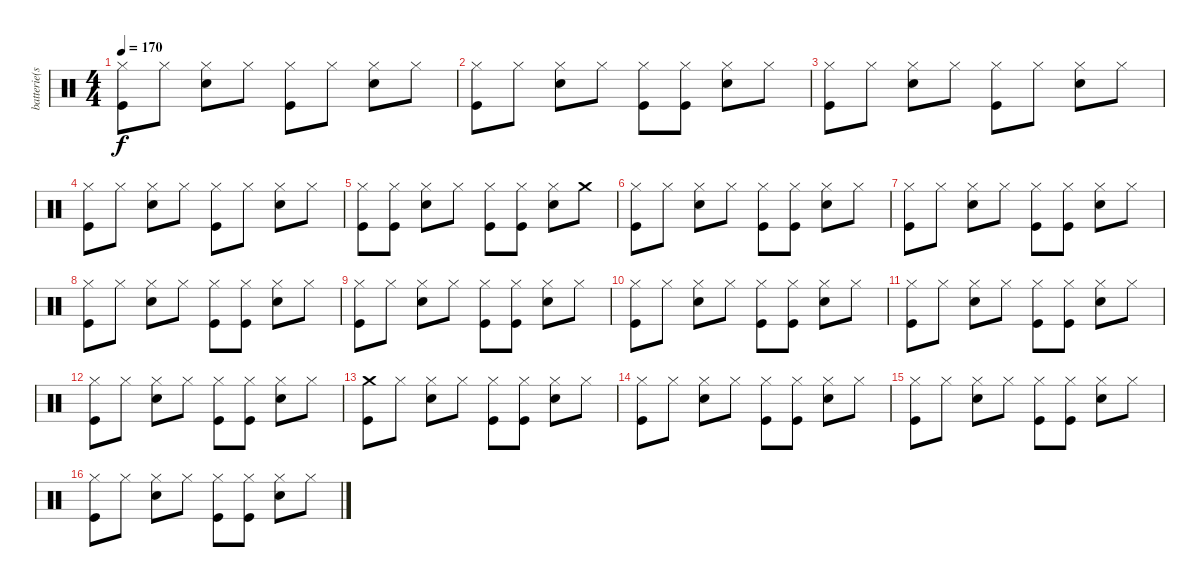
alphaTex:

\track ("batterie(steve)" "batterie(s") {instrument percussion}
\staff {score}
\articulation defaults
\ts (4 4)
\tempo 170
\clef neutral
\ks c
("Hi-Hat (closed)" "Kick (hit)").8{dy f} "Hi-Hat (closed)".8 ("Hi-Hat (closed)" "Snare (hit) 2").8 "Hi-Hat (closed)".8 ("Hi-Hat (closed)" "Kick (hit)").8 "Hi-Hat (closed)".8 ("Hi-Hat (closed)" "Snare (hit) 2").8 "Hi-Hat (closed)".8 |
("Hi-Hat (closed)" "Kick (hit)").8 "Hi-Hat (closed)".8 ("Hi-Hat (closed)" "Snare (hit) 2").8 "Hi-Hat (closed)".8 ("Hi-Hat (closed)" "Kick (hit)").8 ("Hi-Hat (closed)" "Kick (hit)").8 ("Hi-Hat (closed)" "Snare (hit) 2").8 "Hi-Hat (closed)".8 |
("Hi-Hat (closed)" "Kick (hit)").8 "Hi-Hat (closed)".8 ("Hi-Hat (closed)" "Snare (hit) 2").8 "Hi-Hat (closed)".8 ("Hi-Hat (closed)" "Kick (hit)").8 "Hi-Hat (closed)".8 ("Hi-Hat (closed)" "Snare (hit) 2").8 "Hi-Hat (closed)".8 |
("Hi-Hat (closed)" "Kick (hit)").8 "Hi-Hat (closed)".8 ("Hi-Hat (closed)" "Snare (hit) 2").8 "Hi-Hat (closed)".8 ("Hi-Hat (closed)" "Kick (hit)").8 "Hi-Hat (closed)".8 ("Hi-Hat (closed)" "Snare (hit) 2").8 "Hi-Hat (closed)".8 |
("Hi-Hat (closed)" "Kick (hit)").8 ("Hi-Hat (closed)" "Kick (hit)").8 ("Hi-Hat (closed)" "Snare (hit) 2").8 "Hi-Hat (closed)".8 ("Hi-Hat (closed)" "Kick (hit)").8 ("Hi-Hat (closed)" "Kick (hit)").8 ("Hi-Hat (closed)" "Snare (hit) 2").8 "Crash medium (hit)".8 |
("Hi-Hat (closed)" "Kick (hit)").8 "Hi-Hat (closed)".8 ("Hi-Hat (closed)" "Snare (hit) 2").8 "Hi-Hat (closed)".8 ("Hi-Hat (closed)" "Kick (hit)").8 ("Hi-Hat (closed)" "Kick (hit)").8 ("Hi-Hat (closed)" "Snare (hit) 2").8 "Hi-Hat (closed)".8 |
("Hi-Hat (closed)" "Kick (hit)").8 "Hi-Hat (closed)".8 ("Hi-Hat (closed)" "Snare (hit) 2").8 "Hi-Hat (closed)".8 ("Hi-Hat (closed)" "Kick (hit)").8 ("Hi-Hat (closed)" "Kick (hit)").8 ("Hi-Hat (closed)" "Snare (hit) 2").8 "Hi-Hat (closed)".8 |
("Hi-Hat (closed)" "Kick (hit)").8 "Hi-Hat (closed)".8 ("Hi-Hat (closed)" "Snare (hit) 2").8 "Hi-Hat (closed)".8 ("Hi-Hat (closed)" "Kick (hit)").8 ("Hi-Hat (closed)" "Kick (hit)").8 ("Hi-Hat (closed)" "Snare (hit) 2").8 "Hi-Hat (closed)".8 |
("Hi-Hat (closed)" "Kick (hit)").8 "Hi-Hat (closed)".8 ("Hi-Hat (closed)" "Snare (hit) 2").8 "Hi-Hat (closed)".8 ("Hi-Hat (closed)" "Kick (hit)").8 ("Hi-Hat (closed)" "Kick (hit)").8 ("Hi-Hat (closed)" "Snare (hit) 2").8 "Hi-Hat (closed)".8 |
("Hi-Hat (closed)" "Kick (hit)").8 "Hi-Hat (closed)".8 ("Hi-Hat (closed)" "Snare (hit) 2").8 "Hi-Hat (closed)".8 ("Hi-Hat (closed)" "Kick (hit)").8 ("Hi-Hat (closed)" "Kick (hit)").8 ("Hi-Hat (closed)" "Snare (hit) 2").8 "Hi-Hat (closed)".8 |
("Hi-Hat (closed)" "Kick (hit)").8 "Hi-Hat (closed)".8 ("Hi-Hat (closed)" "Snare (hit) 2").8 "Hi-Hat (closed)".8 ("Hi-Hat (closed)" "Kick (hit)").8 ("Hi-Hat (closed)" "Kick (hit)").8 ("Hi-Hat (closed)" "Snare (hit) 2").8 "Hi-Hat (closed)".8 |
("Hi-Hat (closed)" "Kick (hit)").8 "Hi-Hat (closed)".8 ("Hi-Hat (closed)" "Snare (hit) 2").8 "Hi-Hat (closed)".8 ("Hi-Hat (closed)" "Kick (hit)").8 ("Hi-Hat (closed)" "Kick (hit)").8 ("Hi-Hat (closed)" "Snare (hit) 2").8 "Hi-Hat (closed)".8 |
("Crash medium (hit)" "Kick (hit)").8 "Hi-Hat (closed)".8 ("Hi-Hat (closed)" "Snare (hit) 2").8 "Hi-Hat (closed)".8 ("Hi-Hat (closed)" "Kick (hit)").8 ("Hi-Hat (closed)" "Kick (hit)").8 ("Hi-Hat (closed)" "Snare (hit) 2").8 "Hi-Hat (closed)".8 |
("Hi-Hat (closed)" "Kick (hit)").8 "Hi-Hat (closed)".8 ("Hi-Hat (closed)" "Snare (hit) 2").8 "Hi-Hat (closed)".8 ("Hi-Hat (closed)" "Kick (hit)").8 ("Hi-Hat (closed)" "Kick (hit)").8 ("Hi-Hat (closed)" "Snare (hit) 2").8 "Hi-Hat (closed)".8 |
("Hi-Hat (closed)" "Kick (hit)").8 "Hi-Hat (closed)".8 ("Hi-Hat (closed)" "Snare (hit) 2").8 "Hi-Hat (closed)".8 ("Hi-Hat (closed)" "Kick (hit)").8 ("Hi-Hat (closed)" "Kick (hit)").8 ("Hi-Hat (closed)" "Snare (hit) 2").8 "Hi-Hat (closed)".8 |
("Hi-Hat (closed)" "Kick (hit)").8 "Hi-Hat (closed)".8 ("Hi-Hat (closed)" "Snare (hit) 2").8 "Hi-Hat (closed)".8 ("Hi-Hat (closed)" "Kick (hit)").8 ("Hi-Hat (closed)" "Kick (hit)").8 ("Hi-Hat (closed)" "Snare (hit) 2").8 "Hi-Hat (closed)".8
